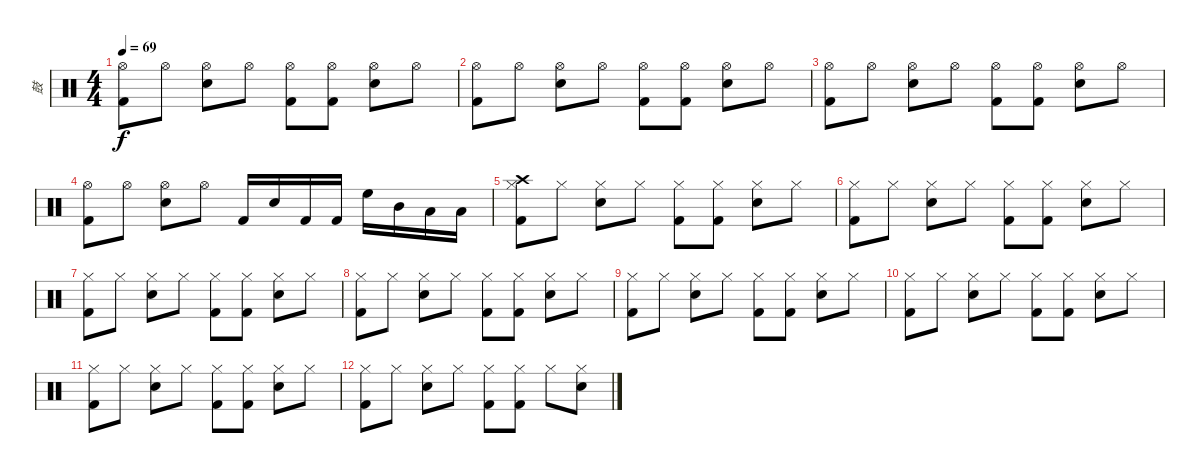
\track ("鼓" "鼓") {instrument percussion}
\staff {score}
\articulation defaults
\ts (4 4)
\tempo 69
\clef neutral
\ks c
("Hi-Hat (open)" "Kick (hit) 2").8{dy f} "Hi-Hat (open)".8 ("Hi-Hat (open)" "Snare (hit) 2").8 "Hi-Hat (open)".8 ("Hi-Hat (open)" "Kick (hit) 2").8 ("Hi-Hat (open)" "Kick (hit) 2").8 ("Hi-Hat (open)" "Snare (hit) 2").8 "Hi-Hat (open)".8 |
("Hi-Hat (open)" "Kick (hit) 2").8 "Hi-Hat (open)".8 ("Hi-Hat (open)" "Snare (hit) 2").8 "Hi-Hat (open)".8 ("Hi-Hat (open)" "Kick (hit) 2").8 ("Hi-Hat (open)" "Kick (hit) 2").8 ("Hi-Hat (open)" "Snare (hit) 2").8 "Hi-Hat (open)".8 |
("Hi-Hat (open)" "Kick (hit) 2").8 "Hi-Hat (open)".8 ("Hi-Hat (open)" "Snare (hit) 2").8 "Hi-Hat (open)".8 ("Hi-Hat (open)" "Kick (hit) 2").8 ("Hi-Hat (open)" "Kick (hit) 2").8 ("Hi-Hat (open)" "Snare (hit) 2").8 "Hi-Hat (open)".8 |
("Hi-Hat (open)" "Kick (hit) 2").8 "Hi-Hat (open)".8 ("Hi-Hat (open)" "Snare (hit) 2").8 "Hi-Hat (open)".8 "Kick (hit) 2".16 "Snare (hit) 2".16 "Kick (hit) 2".16 "Kick (hit) 2".16 "High Floor Tom (hit)".16 "Mid Tom (hit)".16 "Low Tom (hit)".16 "Low Floor Tom (hit)".16 |
("Crash high (hit)" "Hi-Hat (closed)" "Kick (hit) 2").8 "Hi-Hat (closed)".8 ("Hi-Hat (closed)" "Snare (hit) 2").8 "Hi-Hat (closed)".8 ("Hi-Hat (closed)" "Kick (hit) 2").8 ("Hi-Hat (closed)" "Kick (hit) 2").8 ("Hi-Hat (closed)" "Snare (hit) 2").8 "Hi-Hat (closed)".8 |
("Hi-Hat (closed)" "Kick (hit) 2").8 "Hi-Hat (closed)".8 ("Hi-Hat (closed)" "Snare (hit) 2").8 "Hi-Hat (closed)".8 ("Hi-Hat (closed)" "Kick (hit) 2").8 ("Hi-Hat (closed)" "Kick (hit) 2").8 ("Hi-Hat (closed)" "Snare (hit) 2").8 "Hi-Hat (closed)".8 |
("Hi-Hat (closed)" "Kick (hit) 2").8 "Hi-Hat (closed)".8 ("Hi-Hat (closed)" "Snare (hit) 2").8 "Hi-Hat (closed)".8 ("Hi-Hat (closed)" "Kick (hit) 2").8 ("Hi-Hat (closed)" "Kick (hit) 2").8 ("Hi-Hat (closed)" "Snare (hit) 2").8 "Hi-Hat (closed)".8 |
("Hi-Hat (closed)" "Kick (hit) 2").8 "Hi-Hat (closed)".8 ("Hi-Hat (closed)" "Snare (hit) 2").8 "Hi-Hat (closed)".8 ("Hi-Hat (closed)" "Kick (hit) 2").8 ("Hi-Hat (closed)" "Kick (hit) 2").8 ("Hi-Hat (closed)" "Snare (hit) 2").8 "Hi-Hat (closed)".8 |
("Hi-Hat (closed)" "Kick (hit) 2").8 "Hi-Hat (closed)".8 ("Hi-Hat (closed)" "Snare (hit) 2").8 "Hi-Hat (closed)".8 ("Hi-Hat (closed)" "Kick (hit) 2").8 ("Hi-Hat (closed)" "Kick (hit) 2").8 ("Hi-Hat (closed)" "Snare (hit) 2").8 "Hi-Hat (closed)".8 |
("Hi-Hat (closed)" "Kick (hit) 2").8 "Hi-Hat (closed)".8 ("Hi-Hat (closed)" "Snare (hit) 2").8 "Hi-Hat (closed)".8 ("Hi-Hat (closed)" "Kick (hit) 2").8 ("Hi-Hat (closed)" "Kick (hit) 2").8 ("Hi-Hat (closed)" "Snare (hit) 2").8 "Hi-Hat (closed)".8 |
("Hi-Hat (closed)" "Kick (hit) 2").8 "Hi-Hat (closed)".8 ("Hi-Hat (closed)" "Snare (hit) 2").8 "Hi-Hat (closed)".8 ("Hi-Hat (closed)" "Kick (hit) 2").8 ("Hi-Hat (closed)" "Kick (hit) 2").8 ("Hi-Hat (closed)" "Snare (hit) 2").8 "Hi-Hat (closed)".8 |
("Hi-Hat (closed)" "Kick (hit) 2").8 "Hi-Hat (closed)".8 ("Hi-Hat (closed)" "Snare (hit) 2").8 "Hi-Hat (closed)".8 ("Hi-Hat (closed)" "Kick (hit) 2").8 ("Hi-Hat (closed)" "Kick (hit) 2").8 "Hi-Hat (closed)".8 ("Hi-Hat (closed)" "Snare (hit) 2").8
